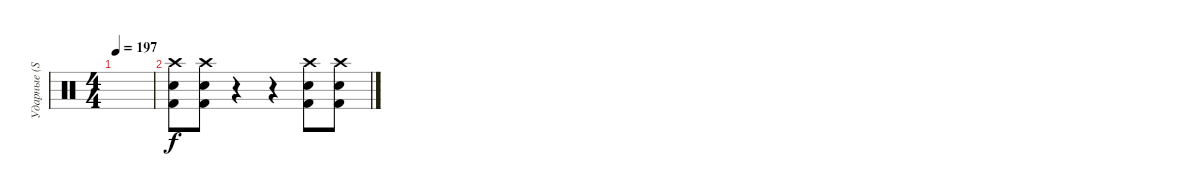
\track ("Ударные (Stevo32)" "Ударные (S") {instrument percussion}
\staff {score}
\articulation defaults
\ts (4 4)
\tempo 197
\clef neutral
\ks c
|
("Crash high (hit)" "Snare (hit) 2" "Kick (hit) 2").8 ("Crash high (hit)" "Snare (hit) 2" "Kick (hit) 2").8 r.4 r.4 ("Crash high (hit)" "Snare (hit) 2" "Kick (hit) 2").8 ("Crash high (hit)" "Snare (hit) 2" "Kick (hit) 2").8
